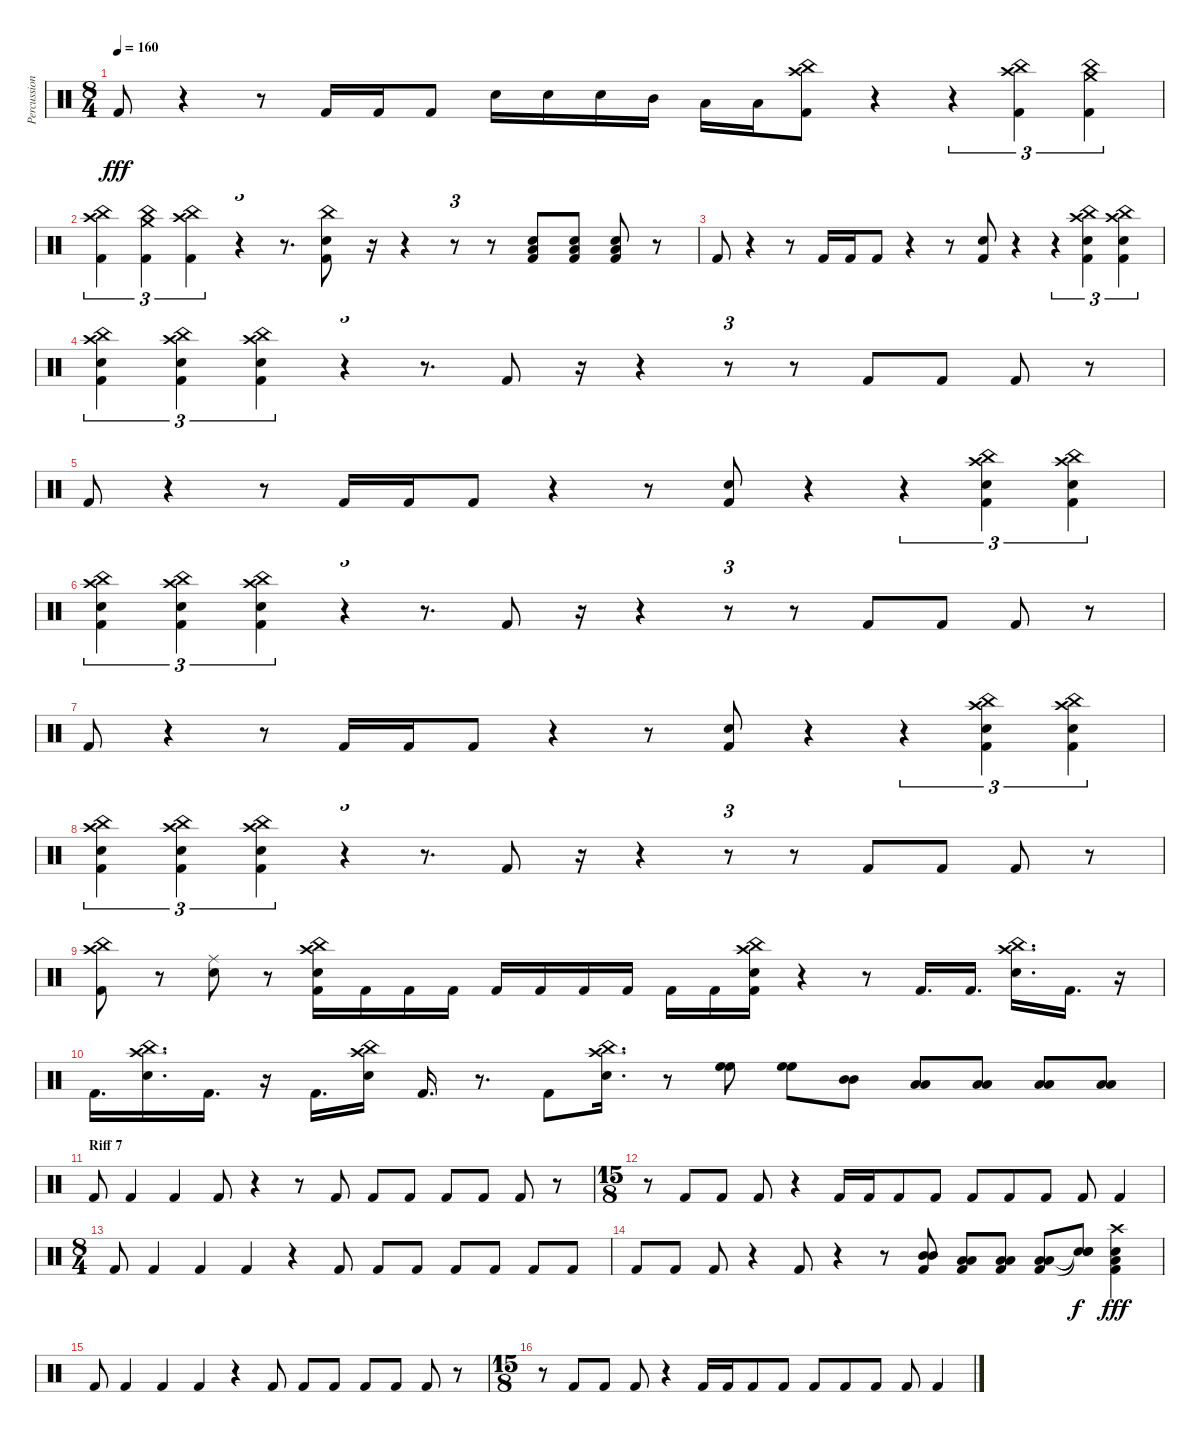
\track ("Percussion" "Percussion") {instrument percussion}
\staff {score}
\articulation defaults
\ts (8 4)
\tempo 160
\clef neutral
\ks c "Kick (hit) 2".8{dy fff}
r.4 r.8 "Kick (hit) 2".16 "Kick (hit) 2".16 "Kick (hit) 2".8 "Electric Snare (hit)".16 "Electric Snare (hit)".16 "Electric Snare (hit)".16 "Mid Tom (hit)".16 "Low Tom (hit)".16 "Low Floor Tom (hit)".16 ("China (hit)" "Crash high (hit)" "Kick (hit) 2").8 r.4 r.4{tu (3 2)} ("China (hit)" "Crash high (hit)" "Kick (hit) 2").4{tu (3 2)} ("China (hit)" "Crash medium (hit)" "Kick (hit) 2").4{tu (3 2)} |
("China (hit)" "Crash high (hit)" "Kick (hit) 2").4{tu (3 2)} ("China (hit)" "Crash medium (hit)" "Kick (hit) 2").4{tu (3 2)} ("China (hit)" "Crash high (hit)" "Kick (hit) 2").4{tu (3 2)} r.4{tu (3 2)} r.8{d} ("China (hit)" "Electric Snare (hit)" "Kick (hit) 2").8 r.16 r.4 r.8{tu (3 2)} r.8 ("Electric Snare (hit)" "Low Floor Tom (hit)" "Kick (hit) 2").8 ("Electric Snare (hit)" "Low Floor Tom (hit)" "Kick (hit) 2").8 ("Electric Snare (hit)" "Low Floor Tom (hit)" "Kick (hit) 2").8 r.8 |
"Kick (hit) 2".8 r.4 r.8 "Kick (hit) 2".16 "Kick (hit) 2".16 "Kick (hit) 2".8 r.4 r.8 ("Electric Snare (hit)" "Kick (hit) 2").8 r.4 r.4{tu (3 2)} ("China (hit)" "Crash high (hit)" "Electric Snare (hit)" "Kick (hit) 2").4{tu (3 2)} ("China (hit)" "Crash high (hit)" "Electric Snare (hit)" "Kick (hit) 2").4{tu (3 2)} |
("China (hit)" "Crash high (hit)" "Electric Snare (hit)" "Kick (hit) 2").4{tu (3 2)} ("China (hit)" "Crash high (hit)" "Electric Snare (hit)" "Kick (hit) 2").4{tu (3 2)} ("China (hit)" "Crash high (hit)" "Electric Snare (hit)" "Kick (hit) 2").4{tu (3 2)} r.4{tu (3 2)} r.8{d} "Kick (hit) 2".8 r.16 r.4 r.8{tu (3 2)} r.8 "Kick (hit) 2".8 "Kick (hit) 2".8 "Kick (hit) 2".8 r.8 |
"Kick (hit) 2".8 r.4 r.8 "Kick (hit) 2".16 "Kick (hit) 2".16 "Kick (hit) 2".8 r.4 r.8 ("Electric Snare (hit)" "Kick (hit) 2").8 r.4 r.4{tu (3 2)} ("China (hit)" "Crash high (hit)" "Electric Snare (hit)" "Kick (hit) 2").4{tu (3 2)} ("China (hit)" "Crash high (hit)" "Electric Snare (hit)" "Kick (hit) 2").4{tu (3 2)} |
("China (hit)" "Crash high (hit)" "Electric Snare (hit)" "Kick (hit) 2").4{tu (3 2)} ("China (hit)" "Crash high (hit)" "Electric Snare (hit)" "Kick (hit) 2").4{tu (3 2)} ("China (hit)" "Crash high (hit)" "Electric Snare (hit)" "Kick (hit) 2").4{tu (3 2)} r.4{tu (3 2)} r.8{d} "Kick (hit) 2".8 r.16 r.4 r.8{tu (3 2)} r.8 "Kick (hit) 2".8 "Kick (hit) 2".8 "Kick (hit) 2".8 r.8 |
"Kick (hit) 2".8 r.4 r.8 "Kick (hit) 2".16 "Kick (hit) 2".16 "Kick (hit) 2".8 r.4 r.8 ("Electric Snare (hit)" "Kick (hit) 2").8 r.4 r.4{tu (3 2)} ("China (hit)" "Crash high (hit)" "Electric Snare (hit)" "Kick (hit) 2").4{tu (3 2)} ("China (hit)" "Crash high (hit)" "Electric Snare (hit)" "Kick (hit) 2").4{tu (3 2)} |
("China (hit)" "Crash high (hit)" "Electric Snare (hit)" "Kick (hit) 2").4{tu (3 2)} ("China (hit)" "Crash high (hit)" "Electric Snare (hit)" "Kick (hit) 2").4{tu (3 2)} ("China (hit)" "Crash high (hit)" "Electric Snare (hit)" "Kick (hit) 2").4{tu (3 2)} r.4{tu (3 2)} r.8{d} "Kick (hit) 2".8 r.16 r.4 r.8{tu (3 2)} r.8 "Kick (hit) 2".8 "Kick (hit) 2".8 "Kick (hit) 2".8 r.8 |
("China (hit)" "Crash high (hit)" "Kick (hit) 2").8 r.8 ("Ride (middle)" "Electric Snare (hit)").8 r.8 ("China (hit)" "Crash high (hit)" "Electric Snare (hit)" "Kick (hit) 2").16 "Kick (hit) 2".16 "Kick (hit) 2".16 "Kick (hit) 2".16 "Kick (hit) 2".16 "Kick (hit) 2".16 "Kick (hit) 2".16 "Kick (hit) 2".16 "Kick (hit) 2".16 "Kick (hit) 2".16 ("China (hit)" "Crash high (hit)" "Electric Snare (hit)" "Kick (hit) 2").16 r.4 r.8 "Kick (hit) 2".16{d} "Kick (hit) 2".16{d} ("China (hit)" "Crash high (hit)" "Electric Snare (hit)").16{d} "Kick (hit) 2".16{d} r.16 |
"Kick (hit) 2".16{d} ("China (hit)" "Crash high (hit)" "Electric Snare (hit)").16{d} "Kick (hit) 2".16{d} r.16 "Kick (hit) 2".16{d} ("China (hit)" "Crash high (hit)" "Electric Snare (hit)").16 "Kick (hit) 2".16{d} r.8{d} "Kick (hit) 2".8 ("China (hit)" "Crash high (hit)" "Electric Snare (hit)").16{d} r.8 ("High Floor Tom (hit)" "High Floor Tom (hit)").8 ("High Floor Tom (hit)" "High Floor Tom (hit)").8 ("Mid Tom (hit)" "Mid Tom (hit)").8 ("Low Tom (hit)" "Low Tom (hit)").8 ("Low Tom (hit)" "Low Tom (hit)").8 ("Low Floor Tom (hit)" "Low Floor Tom (hit)").8 ("Low Floor Tom (hit)" "Low Floor Tom (hit)").8 |
\section ("" "Riff 7")
"Kick (hit) 2".8 "Kick (hit) 2".4 "Kick (hit) 2".4 "Kick (hit) 2".8 r.4 r.8 "Kick (hit) 2".8 "Kick (hit) 2".8 "Kick (hit) 2".8 "Kick (hit) 2".8 "Kick (hit) 2".8 "Kick (hit) 2".8 r.8 |
\ts (15 8)
r.8 "Kick (hit) 2".8 "Kick (hit) 2".8 "Kick (hit) 2".8 r.4 "Kick (hit) 2".16 "Kick (hit) 2".16 "Kick (hit) 2".8 "Kick (hit) 2".8 "Kick (hit) 2".8 "Kick (hit) 2".8 "Kick (hit) 2".8 "Kick (hit) 2".8 "Kick (hit) 2".4 |
\ts (8 4)
"Kick (hit) 2".8 "Kick (hit) 2".4 "Kick (hit) 2".4 "Kick (hit) 2".4 r.4 "Kick (hit) 2".8 "Kick (hit) 2".8 "Kick (hit) 2".8 "Kick (hit) 2".8 "Kick (hit) 2".8 "Kick (hit) 2".8 "Kick (hit) 2".8 |
"Kick (hit) 2".8 "Kick (hit) 2".8 "Kick (hit) 2".8 r.4 "Kick (hit) 2".8 r.4 r.8 ("Mid Tom (hit)" "Mid Tom (hit)" "Kick (hit) 2").8 ("Low Tom (hit)" "Low Tom (hit)" "Kick (hit) 2").8 ("Low Tom (hit)" "Low Tom (hit)" "Kick (hit) 2").8 ("Low Floor Tom (hit)" "Low Floor Tom (hit)" "Kick (hit) 2").8 ("Snare (hit)"{t} "Snare (hit)"{t} "Snare (hit)"{t}).8{dy f} ("Crash high (hit)" "Electric Snare (hit)" "Low Floor Tom (hit)" "Kick (hit) 2").4{dy fff} |
"Kick (hit) 2".8 "Kick (hit) 2".4 "Kick (hit) 2".4 "Kick (hit) 2".4 r.4 "Kick (hit) 2".8 "Kick (hit) 2".8 "Kick (hit) 2".8 "Kick (hit) 2".8 "Kick (hit) 2".8 "Kick (hit) 2".8 r.8 |
\ts (15 8)
r.8 "Kick (hit) 2".8 "Kick (hit) 2".8 "Kick (hit) 2".8 r.4 "Kick (hit) 2".16 "Kick (hit) 2".16 "Kick (hit) 2".8 "Kick (hit) 2".8 "Kick (hit) 2".8 "Kick (hit) 2".8 "Kick (hit) 2".8 "Kick (hit) 2".8 "Kick (hit) 2".4
